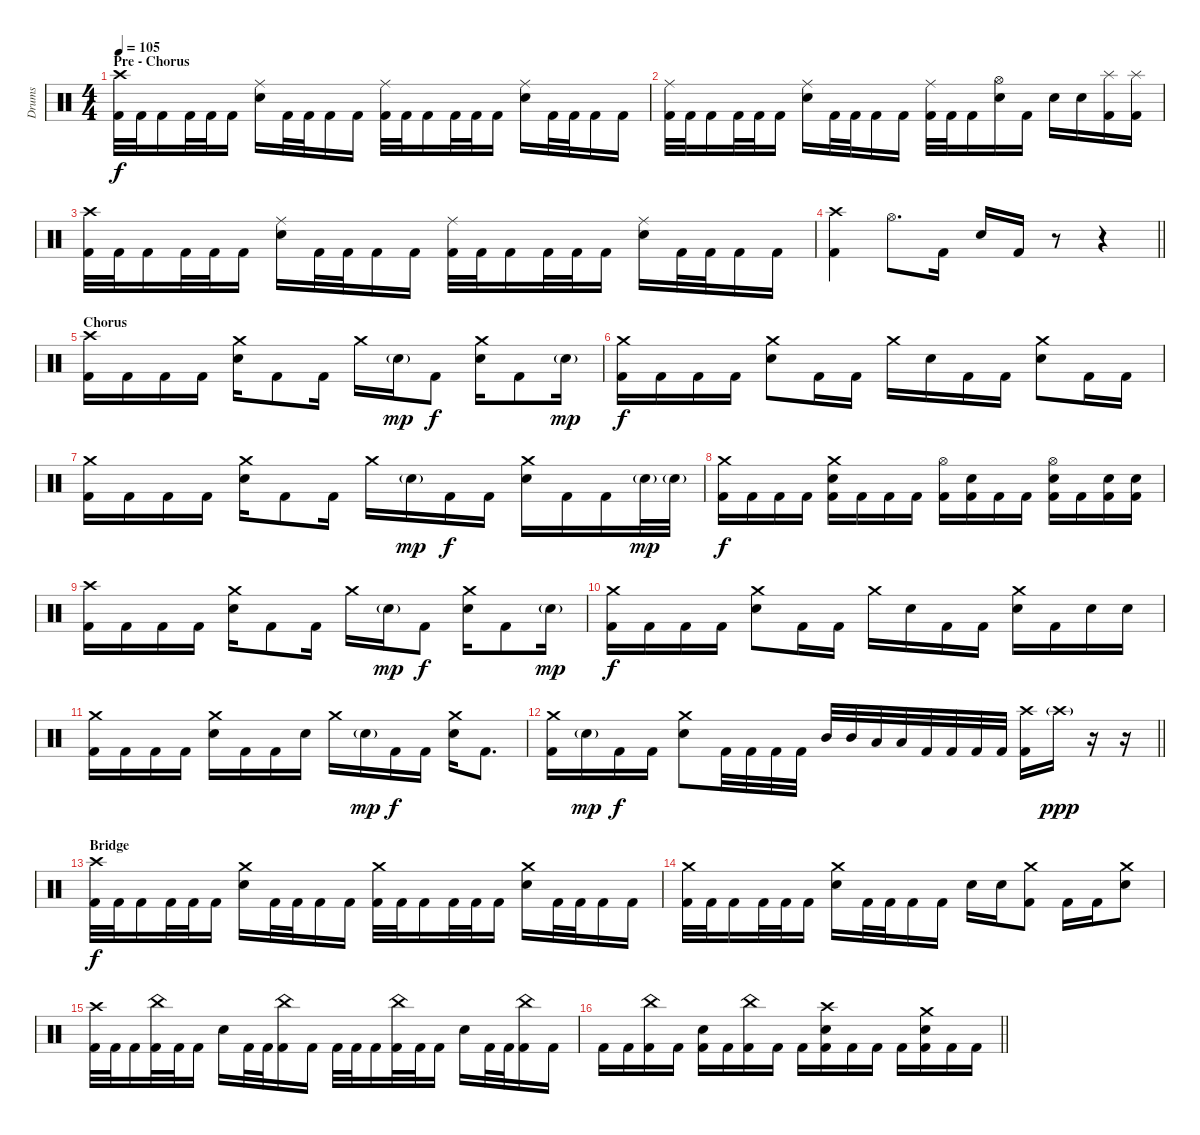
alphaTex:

\track ("Drums" "Drums") {instrument percussion}
\staff {score}
\articulation defaults
\ts (4 4)
\section ("" "Pre - Chorus")
\tempo 105
\clef neutral
\ks c
("Crash high (hit)" "Kick (hit) 2").32{dy f} "Kick (hit) 2".32 "Kick (hit) 2".16 "Kick (hit) 2".32 "Kick (hit) 2".32 "Kick (hit) 2".16 ("Ride (middle)" "Electric Snare (hit)").16 "Kick (hit) 2".32 "Kick (hit) 2".32 "Kick (hit) 2".16 "Kick (hit) 2".16 ("Ride (middle)" "Kick (hit) 2").32 "Kick (hit) 2".32 "Kick (hit) 2".16 "Kick (hit) 2".32 "Kick (hit) 2".32 "Kick (hit) 2".16 ("Ride (middle)" "Electric Snare (hit)").16 "Kick (hit) 2".32 "Kick (hit) 2".32 "Kick (hit) 2".16 "Kick (hit) 2".16 |
("Ride (middle)" "Kick (hit) 2").32 "Kick (hit) 2".32 "Kick (hit) 2".16 "Kick (hit) 2".32 "Kick (hit) 2".32 "Kick (hit) 2".16 ("Ride (middle)" "Electric Snare (hit)").16 "Kick (hit) 2".32 "Kick (hit) 2".32 "Kick (hit) 2".16 "Kick (hit) 2".16 ("Ride (middle)" "Kick (hit) 2").32 "Kick (hit) 2".32 "Kick (hit) 2".16 ("Hi-Hat (open)" "Electric Snare (hit)").16 "Kick (hit) 2".16 "Electric Snare (hit)".16 "Electric Snare (hit)".16 ("Splash (hit)" "Kick (hit) 2").16 ("Splash (hit)" "Kick (hit) 2").16 |
("Crash high (hit)" "Kick (hit) 2").32 "Kick (hit) 2".32 "Kick (hit) 2".16 "Kick (hit) 2".32 "Kick (hit) 2".32 "Kick (hit) 2".16 ("Ride (middle)" "Electric Snare (hit)").16 "Kick (hit) 2".32 "Kick (hit) 2".32 "Kick (hit) 2".16 "Kick (hit) 2".16 ("Ride (middle)" "Kick (hit) 2").32 "Kick (hit) 2".32 "Kick (hit) 2".16 "Kick (hit) 2".32 "Kick (hit) 2".32 "Kick (hit) 2".16 ("Ride (middle)" "Electric Snare (hit)").16 "Kick (hit) 2".32 "Kick (hit) 2".32 "Kick (hit) 2".16 "Kick (hit) 2".16 |
\barLineRight lightlight
("Crash high (hit)" "Kick (hit) 2").4 "Hi-Hat (open)".8{d} "Kick (hit) 2".16 "Electric Snare (hit)".16 "Kick (hit) 2".16 r.8 r.4 |
\section ("" "Chorus")
("Crash high (hit)" "Kick (hit) 2").16 "Kick (hit) 2".16 "Kick (hit) 2".16 "Kick (hit) 2".16 ("Crash medium (hit)" "Electric Snare (hit)").16 "Kick (hit) 2".8 "Kick (hit) 2".16 "Crash medium (hit)".16 "Electric Snare (hit)"{g}.16{dy mp} "Kick (hit) 2".8{dy f} ("Crash medium (hit)" "Electric Snare (hit)").16 "Kick (hit) 2".8 "Electric Snare (hit)"{g}.16{dy mp} |
("Crash medium (hit)" "Kick (hit) 2").16{dy f} "Kick (hit) 2".16 "Kick (hit) 2".16 "Kick (hit) 2".16 ("Crash medium (hit)" "Electric Snare (hit)").8 "Kick (hit) 2".16 "Kick (hit) 2".16 "Crash medium (hit)".16 "Electric Snare (hit)".16 "Kick (hit) 2".16 "Kick (hit) 2".16 ("Crash medium (hit)" "Electric Snare (hit)").8 "Kick (hit) 2".16 "Kick (hit) 2".16 |
("Crash medium (hit)" "Kick (hit) 2").16 "Kick (hit) 2".16 "Kick (hit) 2".16 "Kick (hit) 2".16 ("Crash medium (hit)" "Electric Snare (hit)").16 "Kick (hit) 2".8 "Kick (hit) 2".16 "Crash medium (hit)".16 "Electric Snare (hit)"{g}.16{dy mp} "Kick (hit) 2".16{dy f} "Kick (hit) 2".16 ("Crash medium (hit)" "Electric Snare (hit)").16 "Kick (hit) 2".16 "Kick (hit) 2".16 "Electric Snare (hit)"{g}.32{dy mp} "Electric Snare (hit)"{g}.32 |
("Crash medium (hit)" "Kick (hit) 2").16{dy f} "Kick (hit) 2".16 "Kick (hit) 2".16 "Kick (hit) 2".16 ("Crash medium (hit)" "Electric Snare (hit)" "Kick (hit) 2").16 "Kick (hit) 2".16 "Kick (hit) 2".16 "Kick (hit) 2".16 ("Hi-Hat (open)" "Kick (hit) 2").16 ("Electric Snare (hit)" "Kick (hit) 2").16 "Kick (hit) 2".16 "Kick (hit) 2".16 ("Hi-Hat (open)" "Electric Snare (hit)" "Kick (hit) 2").16 "Kick (hit) 2".16 ("Electric Snare (hit)" "Kick (hit) 2").16 ("Electric Snare (hit)" "Kick (hit) 2").16 |
("Crash high (hit)" "Kick (hit) 2").16 "Kick (hit) 2".16 "Kick (hit) 2".16 "Kick (hit) 2".16 ("Crash medium (hit)" "Electric Snare (hit)").16 "Kick (hit) 2".8 "Kick (hit) 2".16 "Crash medium (hit)".16 "Electric Snare (hit)"{g}.16{dy mp} "Kick (hit) 2".8{dy f} ("Crash medium (hit)" "Electric Snare (hit)").16 "Kick (hit) 2".8 "Electric Snare (hit)"{g}.16{dy mp} |
("Crash medium (hit)" "Kick (hit) 2").16{dy f} "Kick (hit) 2".16 "Kick (hit) 2".16 "Kick (hit) 2".16 ("Crash medium (hit)" "Electric Snare (hit)").8 "Kick (hit) 2".16 "Kick (hit) 2".16 "Crash medium (hit)".16 "Electric Snare (hit)".16 "Kick (hit) 2".16 "Kick (hit) 2".16 ("Crash medium (hit)" "Electric Snare (hit)").16 "Kick (hit) 2".16 "Electric Snare (hit)".16 "Electric Snare (hit)".16 |
("Crash medium (hit)" "Kick (hit) 2").16 "Kick (hit) 2".16 "Kick (hit) 2".16 "Kick (hit) 2".16 ("Crash medium (hit)" "Electric Snare (hit)").16 "Kick (hit) 2".16 "Kick (hit) 2".16 "Electric Snare (hit)".16 "Crash medium (hit)".16 "Electric Snare (hit)"{g}.16{dy mp} "Kick (hit) 2".16{dy f} "Kick (hit) 2".16 ("Crash medium (hit)" "Electric Snare (hit)").16 "Kick (hit) 2".8{d} |
\barLineRight lightlight
("Crash medium (hit)" "Kick (hit) 2").16 "Electric Snare (hit)"{g}.16{dy mp} "Kick (hit) 2".16{dy f} "Kick (hit) 2".16 ("Crash medium (hit)" "Electric Snare (hit)").8 "Kick (hit) 2".32 "Kick (hit) 2".32 "Kick (hit) 2".32 "Kick (hit) 2".32 "Mid Tom (hit)".32 "Mid Tom (hit)".32 "Low Tom (hit)".32 "Low Tom (hit)".32 "Kick (hit) 2".32 "Kick (hit) 2".32 "Kick (hit) 2".32 "Kick (hit) 2".32 ("Crash high (hit)" "Kick (hit) 2").16 "Crash high (hit)"{g}.16{dy ppp} r.16 r.16 |
\section ("" "Bridge")
("Crash high (hit)" "Kick (hit) 2").32{dy f} "Kick (hit) 2".32 "Kick (hit) 2".16 "Kick (hit) 2".32 "Kick (hit) 2".32 "Kick (hit) 2".16 ("Crash medium (hit)" "Electric Snare (hit)").16 "Kick (hit) 2".32 "Kick (hit) 2".32 "Kick (hit) 2".16 "Kick (hit) 2".16 ("Crash medium (hit)" "Kick (hit) 2").32 "Kick (hit) 2".32 "Kick (hit) 2".16 "Kick (hit) 2".32 "Kick (hit) 2".32 "Kick (hit) 2".16 ("Crash medium (hit)" "Electric Snare (hit)").16 "Kick (hit) 2".32 "Kick (hit) 2".32 "Kick (hit) 2".16 "Kick (hit) 2".16 |
("Crash medium (hit)" "Kick (hit) 2").32 "Kick (hit) 2".32 "Kick (hit) 2".16 "Kick (hit) 2".32 "Kick (hit) 2".32 "Kick (hit) 2".16 ("Crash medium (hit)" "Electric Snare (hit)").16 "Kick (hit) 2".32 "Kick (hit) 2".32 "Kick (hit) 2".16 "Kick (hit) 2".16 "Electric Snare (hit)".16 "Electric Snare (hit)".16 ("Crash medium (hit)" "Kick (hit) 2").8 "Kick (hit) 2".16 "Kick (hit) 2".16 ("Crash medium (hit)" "Electric Snare (hit)").8 |
("Crash high (hit)" "Kick (hit) 2").32 "Kick (hit) 2".32 "Kick (hit) 2".16 ("China (hit)" "Kick (hit) 2").32 "Kick (hit) 2".32 "Kick (hit) 2".16 "Electric Snare (hit)".16 "Kick (hit) 2".32 "Kick (hit) 2".32 ("China (hit)" "Kick (hit) 2").16 "Kick (hit) 2".16 "Kick (hit) 2".32 "Kick (hit) 2".32 "Kick (hit) 2".16 ("China (hit)" "Kick (hit) 2").32 "Kick (hit) 2".32 "Kick (hit) 2".16 "Electric Snare (hit)".16 "Kick (hit) 2".32 "Kick (hit) 2".32 ("China (hit)" "Kick (hit) 2").16 "Kick (hit) 2".16 |
\barLineRight lightlight "Kick (hit) 2".16 "Kick (hit) 2".16
("China (hit)" "Kick (hit) 2").16 "Kick (hit) 2".16 ("Electric Snare (hit)" "Kick (hit) 2").16 "Kick (hit) 2".16 ("China (hit)" "Kick (hit) 2").16 "Kick (hit) 2".16 "Kick (hit) 2".16 ("Crash high (hit)" "Electric Snare (hit)" "Kick (hit) 2").16 "Kick (hit) 2".16 "Kick (hit) 2".16 "Kick (hit) 2".16 ("Crash medium (hit)" "Electric Snare (hit)" "Kick (hit) 2").16 "Kick (hit) 2".16 "Kick (hit) 2".16
